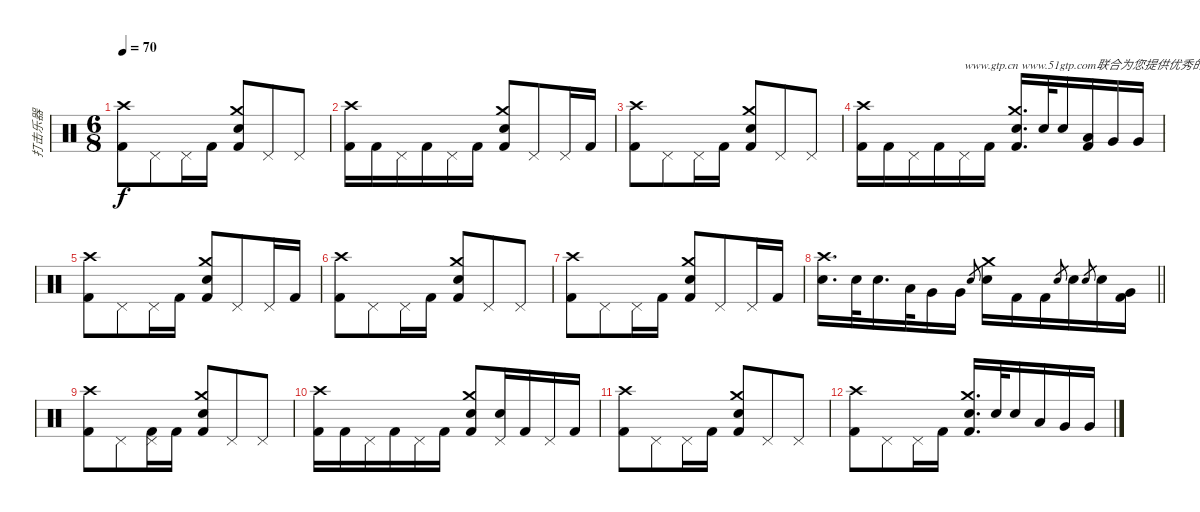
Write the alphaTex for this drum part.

\track ("打击乐器" "打击乐器") {instrument percussion}
\staff {score}
\articulation defaults
\ts (6 8)
\tempo 70
\clef neutral
\ks c
("Crash high (hit)" "Kick (hit) 2").8{dy f} "Pedal Hi-Hat (hit)".8 "Pedal Hi-Hat (hit)".16 "Kick (hit) 2".16 ("Crash medium (hit)" "Snare (hit) 2" "Kick (hit) 2").8 "Pedal Hi-Hat (hit)".8 "Pedal Hi-Hat (hit)".8 |
("Crash high (hit)" "Kick (hit) 2").16 "Kick (hit) 2".16 "Pedal Hi-Hat (hit)".16 "Kick (hit) 2".16 "Pedal Hi-Hat (hit)".16 "Kick (hit) 2".16 ("Crash medium (hit)" "Snare (hit) 2" "Kick (hit) 2").8 "Pedal Hi-Hat (hit)".8 "Pedal Hi-Hat (hit)".16 "Kick (hit) 2".16 |
("Crash high (hit)" "Kick (hit) 2").8 "Pedal Hi-Hat (hit)".8 "Pedal Hi-Hat (hit)".16 "Kick (hit) 2".16 ("Crash medium (hit)" "Snare (hit) 2" "Kick (hit) 2").8 "Pedal Hi-Hat (hit)".8 "Pedal Hi-Hat (hit)".8 |
("Crash high (hit)" "Kick (hit) 2").16 "Kick (hit) 2".16 "Pedal Hi-Hat (hit)".16 "Kick (hit) 2".16 "Pedal Hi-Hat (hit)".16{txt "www.gtp.cn www.51gtp.com联合为您提供优秀的GTP!"} "Kick (hit) 2".16 ("Crash medium (hit)" "Snare (hit) 2" "Kick (hit) 2").16{d} "Snare (hit) 2".32 "Snare (hit) 2".16 ("Low Tom (hit)" "Kick (hit) 2").16 "Very Low Tom (hit)".16 "Very Low Tom (hit)".16 |
("Crash high (hit)" "Kick (hit) 2").8 "Pedal Hi-Hat (hit)".8 "Pedal Hi-Hat (hit)".16 "Kick (hit) 2".16 ("Crash medium (hit)" "Snare (hit) 2" "Kick (hit) 2").8 "Pedal Hi-Hat (hit)".8 "Pedal Hi-Hat (hit)".16 "Kick (hit) 2".16 |
("Crash high (hit)" "Kick (hit) 2").8{volume 0} "Pedal Hi-Hat (hit)".8 "Pedal Hi-Hat (hit)".16 "Kick (hit) 2".16 ("Crash medium (hit)" "Snare (hit) 2" "Kick (hit) 2").8 "Pedal Hi-Hat (hit)".8 "Pedal Hi-Hat (hit)".8 |
("Crash high (hit)" "Kick (hit) 2").8 "Pedal Hi-Hat (hit)".8 "Pedal Hi-Hat (hit)".16 "Kick (hit) 2".16 ("Crash medium (hit)" "Snare (hit) 2" "Kick (hit) 2").8 "Pedal Hi-Hat (hit)".8 "Pedal Hi-Hat (hit)".16 "Kick (hit) 2".16 |
\barLineRight lightlight
("Crash high (hit)" "Snare (hit) 2").16{d} "Snare (hit) 2".32 "Snare (hit) 2".16{d} "Low Tom (hit)".32 "Very Low Tom (hit)".16 "Very Low Tom (hit)".16 "Snare (hit) 2".8{gr} ("Crash medium (hit)" "Snare (hit) 2").16 "Kick (hit) 2".16 "Kick (hit) 2".16 "Snare (hit) 2".8{gr} "Snare (hit) 2".16 "Snare (hit) 2".8{gr} "Snare (hit) 2".16 ("Very Low Tom (hit)" "Kick (hit) 2").16 |
("Crash high (hit)" "Kick (hit) 2").8 "Pedal Hi-Hat (hit)".8 ("Pedal Hi-Hat (hit)" "Kick (hit) 2").16 "Kick (hit) 2".16 ("Crash medium (hit)" "Snare (hit) 2" "Kick (hit) 2").8 "Pedal Hi-Hat (hit)".8 "Pedal Hi-Hat (hit)".8 |
("Crash high (hit)" "Kick (hit) 2").16 "Kick (hit) 2".16 "Pedal Hi-Hat (hit)".16 "Kick (hit) 2".16 "Pedal Hi-Hat (hit)".16 "Kick (hit) 2".16 ("Crash medium (hit)" "Snare (hit) 2" "Kick (hit) 2").8 ("Pedal Hi-Hat (hit)" "Snare (hit) 2").16 "Kick (hit) 2".16 "Pedal Hi-Hat (hit)".16 "Kick (hit) 2".16 |
("Crash high (hit)" "Kick (hit) 2").8 "Pedal Hi-Hat (hit)".8 "Pedal Hi-Hat (hit)".16 "Kick (hit) 2".16 ("Crash medium (hit)" "Snare (hit) 2" "Kick (hit) 2").8 "Pedal Hi-Hat (hit)".8 "Pedal Hi-Hat (hit)".8 |
("Crash high (hit)" "Kick (hit) 2").8 "Pedal Hi-Hat (hit)".8 "Pedal Hi-Hat (hit)".16 "Kick (hit) 2".16 ("Crash medium (hit)" "Snare (hit) 2" "Kick (hit) 2").16{d} "Snare (hit) 2".32 "Snare (hit) 2".16 "Low Tom (hit)".16 "Very Low Tom (hit)".16 "Very Low Tom (hit)".16
